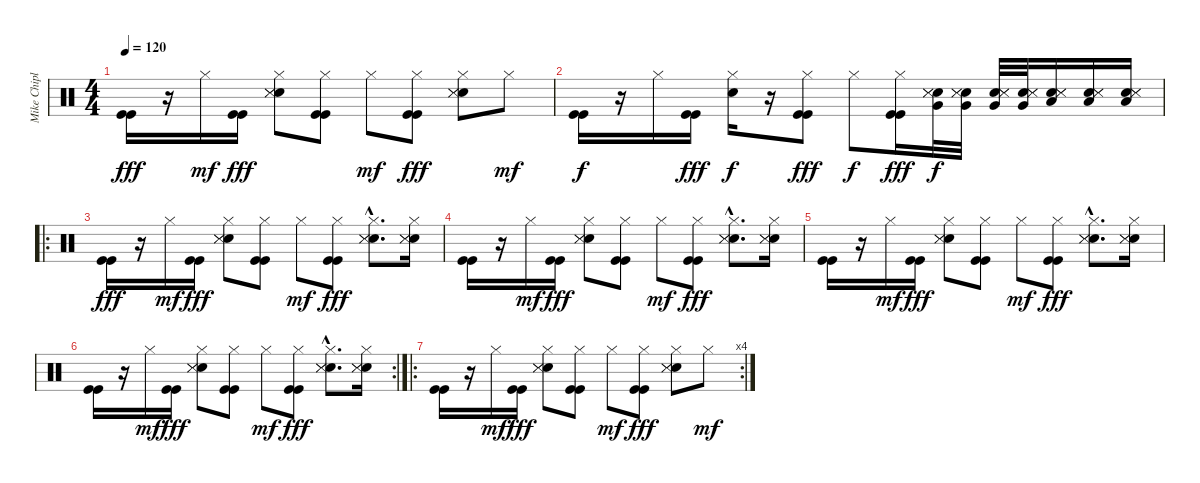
\track ("Mike Chiplin" "Mike Chipl") {instrument percussion}
\staff {score}
\articulation defaults
\ts (4 4)
\tempo 120
\clef neutral
\ks c
("Kick (hit)" "Kick (hit)").16{dy fff} r.16 "Hi-Hat (closed)".16{dy mf} ("Kick (hit)" "Kick (hit)").16{dy fff} ("Hi-Hat (closed)" "Electric Snare (hit)" "Snare (side stick) 3" "Snare (side stick) 3").8 ("Hi-Hat (closed)" "Kick (hit)" "Kick (hit)").8 "Hi-Hat (closed)".8{dy mf} ("Hi-Hat (closed)" "Kick (hit)" "Kick (hit)").8{dy fff} ("Hi-Hat (closed)" "Electric Snare (hit)" "Snare (side stick) 3" "Snare (side stick) 3").8 "Hi-Hat (closed)".8{dy mf} |
("Kick (hit)" "Kick (hit)").16{dy f} r.16 "Hi-Hat (closed)".16 ("Kick (hit)" "Kick (hit)").16{dy fff} ("Hi-Hat (closed)" "Electric Snare (hit)").16{dy f} r.16 ("Hi-Hat (closed)" "Kick (hit)" "Kick (hit)").8{dy fff} "Hi-Hat (closed)".8{dy f} ("Hi-Hat (closed)" "Kick (hit)" "Kick (hit)").16{dy fff} ("Very Low Tom (hit)" "Electric Snare (hit)" "Snare (side stick) 3" "Snare (side stick) 3").32{dy f} ("Very Low Tom (hit)" "Electric Snare (hit)" "Snare (side stick) 3" "Snare (side stick) 3").32 ("Very Low Tom (hit)" "Electric Snare (hit)" "Snare (side stick) 3" "Snare (side stick) 3").32 ("Very Low Tom (hit)" "Electric Snare (hit)" "Snare (side stick) 3" "Snare (side stick) 3").32 ("Low Tom (hit)" "Electric Snare (hit)" "Snare (side stick) 3" "Snare (side stick) 3").16 ("Low Tom (hit)" "Electric Snare (hit)" "Snare (side stick) 3" "Snare (side stick) 3").16 ("Low Tom (hit)" "Electric Snare (hit)" "Snare (side stick) 3" "Snare (side stick) 3").16 |
\ro
("Kick (hit)" "Kick (hit)").16{dy fff} r.16 "Hi-Hat (closed)".16{dy mf} ("Kick (hit)" "Kick (hit)").16{dy fff} ("Hi-Hat (closed)" "Electric Snare (hit)" "Snare (side stick) 3" "Snare (side stick) 3").8 ("Hi-Hat (closed)" "Kick (hit)" "Kick (hit)").8 "Hi-Hat (closed)".8{dy mf} ("Hi-Hat (closed)" "Kick (hit)" "Kick (hit)").8{dy fff} ("Hi-Hat (closed)"{hac} "Electric Snare (hit)"{hac} "Snare (side stick) 3"{hac} "Snare (side stick) 3"{hac}).8{d} ("Hi-Hat (closed)" "Electric Snare (hit)" "Snare (side stick) 3" "Snare (side stick) 3").16 |
("Kick (hit)" "Kick (hit)").16 r.16 "Hi-Hat (closed)".16{dy mf} ("Kick (hit)" "Kick (hit)").16{dy fff} ("Hi-Hat (closed)" "Electric Snare (hit)" "Snare (side stick) 3" "Snare (side stick) 3").8 ("Hi-Hat (closed)" "Kick (hit)" "Kick (hit)").8 "Hi-Hat (closed)".8{dy mf} ("Hi-Hat (closed)" "Kick (hit)" "Kick (hit)").8{dy fff} ("Hi-Hat (closed)"{hac} "Electric Snare (hit)"{hac} "Snare (side stick) 3"{hac} "Snare (side stick) 3"{hac}).8{d} ("Hi-Hat (closed)" "Electric Snare (hit)" "Snare (side stick) 3" "Snare (side stick) 3").16 |
("Kick (hit)" "Kick (hit)").16 r.16 "Hi-Hat (closed)".16{dy mf} ("Kick (hit)" "Kick (hit)").16{dy fff} ("Hi-Hat (closed)" "Electric Snare (hit)" "Snare (side stick) 3" "Snare (side stick) 3").8 ("Hi-Hat (closed)" "Kick (hit)" "Kick (hit)").8 "Hi-Hat (closed)".8{dy mf} ("Hi-Hat (closed)" "Kick (hit)" "Kick (hit)").8{dy fff} ("Hi-Hat (closed)"{hac} "Electric Snare (hit)"{hac} "Snare (side stick) 3"{hac} "Snare (side stick) 3"{hac}).8{d} ("Hi-Hat (closed)" "Electric Snare (hit)" "Snare (side stick) 3" "Snare (side stick) 3").16 |
\rc 2
("Kick (hit)" "Kick (hit)").16 r.16 "Hi-Hat (closed)".16{dy mf} ("Kick (hit)" "Kick (hit)").16{dy fff} ("Hi-Hat (closed)" "Electric Snare (hit)" "Snare (side stick) 3" "Snare (side stick) 3").8 ("Hi-Hat (closed)" "Kick (hit)" "Kick (hit)").8 "Hi-Hat (closed)".8{dy mf} ("Hi-Hat (closed)" "Kick (hit)" "Kick (hit)").8{dy fff} ("Hi-Hat (closed)"{hac} "Electric Snare (hit)"{hac} "Snare (side stick) 3"{hac} "Snare (side stick) 3"{hac}).8{d} ("Hi-Hat (closed)" "Electric Snare (hit)" "Snare (side stick) 3" "Snare (side stick) 3").16 |
\ro
\rc 4
("Kick (hit)" "Kick (hit)").16 r.16 "Hi-Hat (closed)".16{dy mf} ("Kick (hit)" "Kick (hit)").16{dy fff} ("Hi-Hat (closed)" "Electric Snare (hit)" "Snare (side stick) 3" "Snare (side stick) 3").8 ("Hi-Hat (closed)" "Kick (hit)" "Kick (hit)").8 "Hi-Hat (closed)".8{dy mf} ("Hi-Hat (closed)" "Kick (hit)" "Kick (hit)").8{dy fff} ("Hi-Hat (closed)" "Electric Snare (hit)" "Snare (side stick) 3" "Snare (side stick) 3").8 "Hi-Hat (closed)".8{dy mf}
